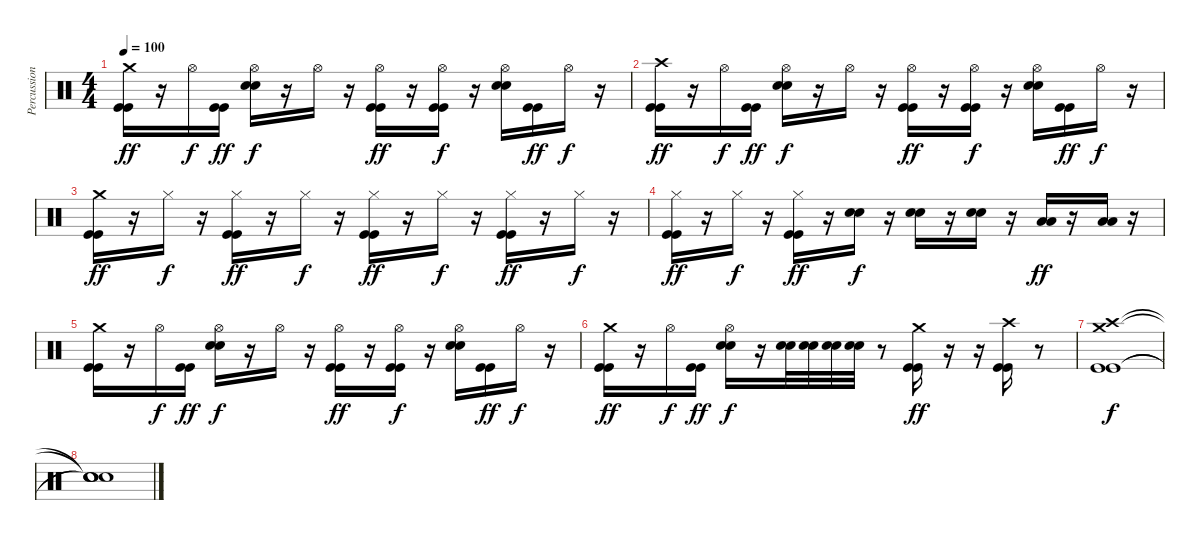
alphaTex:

\track ("Percussions" "Percussion") {instrument percussion}
\staff
\articulation defaults
\ts (4 4)
\tempo 100
\clef neutral
\ks c
("Crash medium (hit)" "Kick (hit)" "Kick (hit)").16{dy ff} r.16 "Hi-Hat (open)".16{dy f} ("Kick (hit)" "Kick (hit)").16{dy ff} ("Hi-Hat (open)" "Electric Snare (hit)" "Electric Snare (hit)").16{dy f} r.16 "Hi-Hat (open)".16 r.16 ("Hi-Hat (open)" "Kick (hit)" "Kick (hit)").16{dy ff} r.16 ("Hi-Hat (open)" "Kick (hit)" "Kick (hit)").16{dy f} r.16 ("Hi-Hat (open)" "Electric Snare (hit)" "Electric Snare (hit)").16 ("Kick (hit)" "Kick (hit)").16{dy ff} "Hi-Hat (open)".16{dy f} r.16 |
("Crash high (hit)" "Kick (hit)" "Kick (hit)").16{dy ff} r.16 "Hi-Hat (open)".16{dy f} ("Kick (hit)" "Kick (hit)").16{dy ff} ("Hi-Hat (open)" "Electric Snare (hit)" "Electric Snare (hit)").16{dy f} r.16 "Hi-Hat (open)".16 r.16 ("Hi-Hat (open)" "Kick (hit)" "Kick (hit)").16{dy ff} r.16 ("Hi-Hat (open)" "Kick (hit)" "Kick (hit)").16{dy f} r.16 ("Hi-Hat (open)" "Electric Snare (hit)" "Electric Snare (hit)").16 ("Kick (hit)" "Kick (hit)").16{dy ff} "Hi-Hat (open)".16{dy f} r.16 |
("Crash medium (hit)" "Kick (hit)" "Kick (hit)").16{dy ff} r.16 "Hi-Hat (closed)".16{dy f} r.16 ("Hi-Hat (closed)" "Kick (hit)" "Kick (hit)").16{dy ff} r.16 "Hi-Hat (closed)".16{dy f} r.16 ("Hi-Hat (closed)" "Kick (hit)" "Kick (hit)").16{dy ff} r.16 "Hi-Hat (closed)".16{dy f} r.16 ("Hi-Hat (closed)" "Kick (hit)" "Kick (hit)").16{dy ff} r.16 "Hi-Hat (closed)".16{dy f} r.16 |
("Hi-Hat (closed)" "Kick (hit)" "Kick (hit)").16{dy ff} r.16 "Hi-Hat (closed)".16{dy f} r.16 ("Hi-Hat (closed)" "Kick (hit)" "Kick (hit)").16{dy ff} r.16 ("Electric Snare (hit)" "Electric Snare (hit)").16{dy f} r.16 ("Electric Snare (hit)" "Electric Snare (hit)").16 r.16 ("Electric Snare (hit)" "Electric Snare (hit)").16 r.16 ("Low Tom (hit)" "Low Tom (hit)").16{dy ff} r.16 ("Low Tom (hit)" "Low Tom (hit)").16 r.16 |
("Crash medium (hit)" "Kick (hit)" "Kick (hit)").16 r.16 "Hi-Hat (open)".16{dy f} ("Kick (hit)" "Kick (hit)").16{dy ff} ("Hi-Hat (open)" "Electric Snare (hit)" "Electric Snare (hit)").16{dy f} r.16 "Hi-Hat (open)".16 r.16 ("Hi-Hat (open)" "Kick (hit)" "Kick (hit)").16{dy ff} r.16 ("Hi-Hat (open)" "Kick (hit)" "Kick (hit)").16{dy f} r.16 ("Hi-Hat (open)" "Electric Snare (hit)" "Electric Snare (hit)").16 ("Kick (hit)" "Kick (hit)").16{dy ff} "Hi-Hat (open)".16{dy f} r.16 |
("Crash medium (hit)" "Kick (hit)" "Kick (hit)").16{dy ff} r.16 "Hi-Hat (open)".16{dy f} ("Kick (hit)" "Kick (hit)").16{dy ff} ("Hi-Hat (open)" "Electric Snare (hit)" "Electric Snare (hit)").16{dy f} r.16 ("Electric Snare (hit)" "Electric Snare (hit)").32 ("Electric Snare (hit)" "Electric Snare (hit)").32 ("Electric Snare (hit)" "Electric Snare (hit)").32 ("Electric Snare (hit)" "Electric Snare (hit)").32 r.8 ("Crash medium (hit)" "Kick (hit)" "Kick (hit)").16{dy ff} r.16 r.16 ("Crash high (hit)" "Kick (hit)" "Kick (hit)").16 r.8 |
("Crash medium (hit)" "Crash high (hit)" "Kick (hit)" "Kick (hit)").1{dy f} |
("Snare (hit)"{t} "Snare (hit)"{t} "Snare (hit)"{t} "Snare (hit)"{t}).1
